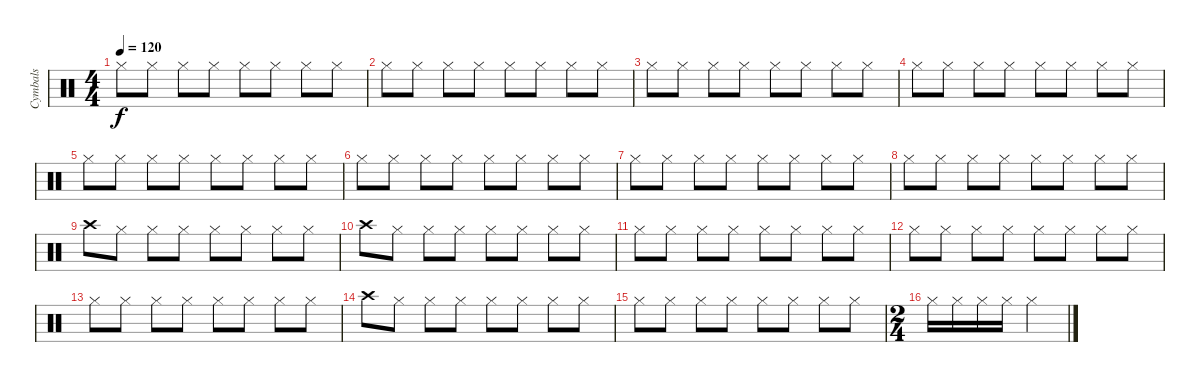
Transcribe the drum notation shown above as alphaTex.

\track ("Cymbals" "Cymbals") {instrument percussion}
\staff {score}
\articulation defaults
\ts (4 4)
\tempo 120
\clef neutral
\ks c "Hi-Hat (closed)".8{dy f} "Hi-Hat (closed)".8 "Hi-Hat (closed)".8 "Hi-Hat (closed)".8 "Hi-Hat (closed)".8 "Hi-Hat (closed)".8 "Hi-Hat (closed)".8 "Hi-Hat (closed)".8
|
"Hi-Hat (closed)".8 "Hi-Hat (closed)".8 "Hi-Hat (closed)".8 "Hi-Hat (closed)".8 "Hi-Hat (closed)".8 "Hi-Hat (closed)".8 "Hi-Hat (closed)".8 "Hi-Hat (closed)".8 |
"Hi-Hat (closed)".8 "Hi-Hat (closed)".8 "Hi-Hat (closed)".8 "Hi-Hat (closed)".8 "Hi-Hat (closed)".8 "Hi-Hat (closed)".8 "Hi-Hat (closed)".8 "Hi-Hat (closed)".8 |
"Hi-Hat (closed)".8 "Hi-Hat (closed)".8 "Hi-Hat (closed)".8 "Hi-Hat (closed)".8 "Hi-Hat (closed)".8 "Hi-Hat (closed)".8 "Hi-Hat (closed)".8 "Hi-Hat (closed)".8 |
"Hi-Hat (closed)".8 "Hi-Hat (closed)".8 "Hi-Hat (closed)".8 "Hi-Hat (closed)".8 "Hi-Hat (closed)".8 "Hi-Hat (closed)".8 "Hi-Hat (closed)".8 "Hi-Hat (closed)".8 |
"Hi-Hat (closed)".8 "Hi-Hat (closed)".8 "Hi-Hat (closed)".8 "Hi-Hat (closed)".8 "Hi-Hat (closed)".8 "Hi-Hat (closed)".8 "Hi-Hat (closed)".8 "Hi-Hat (closed)".8 |
"Hi-Hat (closed)".8 "Hi-Hat (closed)".8 "Hi-Hat (closed)".8 "Hi-Hat (closed)".8 "Hi-Hat (closed)".8 "Hi-Hat (closed)".8 "Hi-Hat (closed)".8 "Hi-Hat (closed)".8 |
"Hi-Hat (closed)".8 "Hi-Hat (closed)".8 "Hi-Hat (closed)".8 "Hi-Hat (closed)".8 "Hi-Hat (closed)".8 "Hi-Hat (closed)".8 "Hi-Hat (closed)".8 "Hi-Hat (closed)".8 |
"Crash high (hit)".8 "Hi-Hat (closed)".8 "Hi-Hat (closed)".8 "Hi-Hat (closed)".8 "Hi-Hat (closed)".8 "Hi-Hat (closed)".8 "Hi-Hat (closed)".8 "Hi-Hat (closed)".8 |
"Crash high (hit)".8 "Hi-Hat (closed)".8 "Hi-Hat (closed)".8 "Hi-Hat (closed)".8 "Hi-Hat (closed)".8 "Hi-Hat (closed)".8 "Hi-Hat (closed)".8 "Hi-Hat (closed)".8 |
"Hi-Hat (closed)".8 "Hi-Hat (closed)".8 "Hi-Hat (closed)".8 "Hi-Hat (closed)".8 "Hi-Hat (closed)".8 "Hi-Hat (closed)".8 "Hi-Hat (closed)".8 "Hi-Hat (closed)".8 |
"Hi-Hat (closed)".8 "Hi-Hat (closed)".8 "Hi-Hat (closed)".8 "Hi-Hat (closed)".8 "Hi-Hat (closed)".8 "Hi-Hat (closed)".8 "Hi-Hat (closed)".8 "Hi-Hat (closed)".8 |
"Hi-Hat (closed)".8 "Hi-Hat (closed)".8 "Hi-Hat (closed)".8 "Hi-Hat (closed)".8 "Hi-Hat (closed)".8 "Hi-Hat (closed)".8 "Hi-Hat (closed)".8 "Hi-Hat (closed)".8 |
"Crash high (hit)".8 "Hi-Hat (closed)".8 "Hi-Hat (closed)".8 "Hi-Hat (closed)".8 "Hi-Hat (closed)".8 "Hi-Hat (closed)".8 "Hi-Hat (closed)".8 "Hi-Hat (closed)".8 |
"Hi-Hat (closed)".8 "Hi-Hat (closed)".8 "Hi-Hat (closed)".8 "Hi-Hat (closed)".8 "Hi-Hat (closed)".8 "Hi-Hat (closed)".8 "Hi-Hat (closed)".8 "Hi-Hat (closed)".8 |
\ts (2 4)
"Hi-Hat (closed)".16 "Hi-Hat (closed)".16 "Hi-Hat (closed)".16 "Hi-Hat (closed)".16 "Hi-Hat (closed)".4
